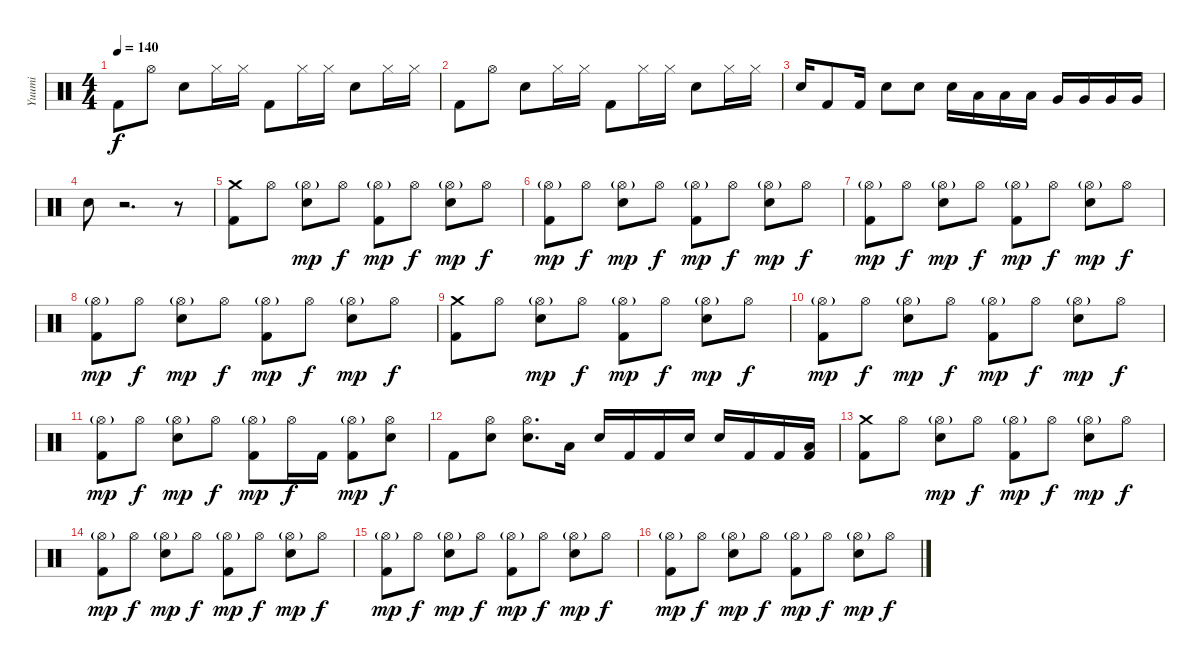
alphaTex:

\track ("Yuumi" "Yuumi") {instrument percussion}
\staff {score}
\articulation defaults
\ts (4 4)
\tempo 140
\clef neutral
\ks c "Kick (hit) 2".8{dy f} "Hi-Hat (open)".8 "Electric Snare (hit)".8 "Hi-Hat (closed)".16 "Hi-Hat (closed)".16 "Kick (hit) 2".8 "Hi-Hat (closed)".16 "Hi-Hat (closed)".16 "Electric Snare (hit)".8 "Hi-Hat (closed)".16 "Hi-Hat (closed)".16
|
"Kick (hit) 2".8 "Hi-Hat (open)".8 "Electric Snare (hit)".8 "Hi-Hat (closed)".16 "Hi-Hat (closed)".16 "Kick (hit) 2".8 "Hi-Hat (closed)".16 "Hi-Hat (closed)".16 "Electric Snare (hit)".8 "Hi-Hat (closed)".16 "Hi-Hat (closed)".16 |
"Electric Snare (hit)".16 "Kick (hit) 2".8 "Kick (hit) 2".16 "Electric Snare (hit)".8 "Electric Snare (hit)".8 "Electric Snare (hit)".16 "Low Tom (hit)".16 "Low Tom (hit)".16 "Low Tom (hit)".16 "Very Low Tom (hit)".16 "Very Low Tom (hit)".16 "Very Low Tom (hit)".16 "Very Low Tom (hit)".16 |
"Electric Snare (hit)".8 r.2{d} r.8 |
("Crash medium (hit)" "Kick (hit) 2").8 "Hi-Hat (open)".8 ("Hi-Hat (open)"{g} "Electric Snare (hit)").8{dy mp} "Hi-Hat (open)".8{dy f} ("Hi-Hat (open)"{g} "Kick (hit) 2").8{dy mp} "Hi-Hat (open)".8{dy f} ("Hi-Hat (open)"{g} "Electric Snare (hit)").8{dy mp} "Hi-Hat (open)".8{dy f} |
("Hi-Hat (open)"{g} "Kick (hit) 2").8{dy mp} "Hi-Hat (open)".8{dy f} ("Hi-Hat (open)"{g} "Electric Snare (hit)").8{dy mp} "Hi-Hat (open)".8{dy f} ("Hi-Hat (open)"{g} "Kick (hit) 2").8{dy mp} "Hi-Hat (open)".8{dy f} ("Hi-Hat (open)"{g} "Electric Snare (hit)").8{dy mp} "Hi-Hat (open)".8{dy f} |
("Hi-Hat (open)"{g} "Kick (hit) 2").8{dy mp} "Hi-Hat (open)".8{dy f} ("Hi-Hat (open)"{g} "Electric Snare (hit)").8{dy mp} "Hi-Hat (open)".8{dy f} ("Hi-Hat (open)"{g} "Kick (hit) 2").8{dy mp} "Hi-Hat (open)".8{dy f} ("Hi-Hat (open)"{g} "Electric Snare (hit)").8{dy mp} "Hi-Hat (open)".8{dy f} |
("Hi-Hat (open)"{g} "Kick (hit) 2").8{dy mp} "Hi-Hat (open)".8{dy f} ("Hi-Hat (open)"{g} "Electric Snare (hit)").8{dy mp} "Hi-Hat (open)".8{dy f} ("Hi-Hat (open)"{g} "Kick (hit) 2").8{dy mp} "Hi-Hat (open)".8{dy f} ("Hi-Hat (open)"{g} "Electric Snare (hit)").8{dy mp} "Hi-Hat (open)".8{dy f} |
("Crash medium (hit)" "Kick (hit) 2").8 "Hi-Hat (open)".8 ("Hi-Hat (open)"{g} "Electric Snare (hit)").8{dy mp} "Hi-Hat (open)".8{dy f} ("Hi-Hat (open)"{g} "Kick (hit) 2").8{dy mp} "Hi-Hat (open)".8{dy f} ("Hi-Hat (open)"{g} "Electric Snare (hit)").8{dy mp} "Hi-Hat (open)".8{dy f} |
("Hi-Hat (open)"{g} "Kick (hit) 2").8{dy mp} "Hi-Hat (open)".8{dy f} ("Hi-Hat (open)"{g} "Electric Snare (hit)").8{dy mp} "Hi-Hat (open)".8{dy f} ("Hi-Hat (open)"{g} "Kick (hit) 2").8{dy mp} "Hi-Hat (open)".8{dy f} ("Hi-Hat (open)"{g} "Electric Snare (hit)").8{dy mp} "Hi-Hat (open)".8{dy f} |
("Hi-Hat (open)"{g} "Kick (hit) 2").8{dy mp} "Hi-Hat (open)".8{dy f} ("Hi-Hat (open)"{g} "Electric Snare (hit)").8{dy mp} "Hi-Hat (open)".8{dy f} ("Hi-Hat (open)"{g} "Kick (hit) 2").8{dy mp} "Hi-Hat (open)".16{dy f} "Kick (hit) 2".16 ("Hi-Hat (open)"{g} "Kick (hit) 2").8{dy mp} ("Hi-Hat (open)" "Electric Snare (hit)").8{dy f} |
"Kick (hit) 2".8 ("Hi-Hat (open)" "Electric Snare (hit)").8 ("Hi-Hat (open)" "Electric Snare (hit)").8{d} "Low Tom (hit)".16 "Electric Snare (hit)".16 "Kick (hit) 2".16 "Kick (hit) 2".16 "Electric Snare (hit)".16 "Electric Snare (hit)".16 "Kick (hit) 2".16 "Kick (hit) 2".16 ("Low Tom (hit)" "Kick (hit) 2").16 |
("Crash medium (hit)" "Kick (hit) 2").8 "Hi-Hat (open)".8 ("Hi-Hat (open)"{g} "Electric Snare (hit)").8{dy mp} "Hi-Hat (open)".8{dy f} ("Hi-Hat (open)"{g} "Kick (hit) 2").8{dy mp} "Hi-Hat (open)".8{dy f} ("Hi-Hat (open)"{g} "Electric Snare (hit)").8{dy mp} "Hi-Hat (open)".8{dy f} |
("Hi-Hat (open)"{g} "Kick (hit) 2").8{dy mp} "Hi-Hat (open)".8{dy f} ("Hi-Hat (open)"{g} "Electric Snare (hit)").8{dy mp} "Hi-Hat (open)".8{dy f} ("Hi-Hat (open)"{g} "Kick (hit) 2").8{dy mp} "Hi-Hat (open)".8{dy f} ("Hi-Hat (open)"{g} "Electric Snare (hit)").8{dy mp} "Hi-Hat (open)".8{dy f} |
("Hi-Hat (open)"{g} "Kick (hit) 2").8{dy mp} "Hi-Hat (open)".8{dy f} ("Hi-Hat (open)"{g} "Electric Snare (hit)").8{dy mp} "Hi-Hat (open)".8{dy f} ("Hi-Hat (open)"{g} "Kick (hit) 2").8{dy mp} "Hi-Hat (open)".8{dy f} ("Hi-Hat (open)"{g} "Electric Snare (hit)").8{dy mp} "Hi-Hat (open)".8{dy f} |
("Hi-Hat (open)"{g} "Kick (hit) 2").8{dy mp} "Hi-Hat (open)".8{dy f} ("Hi-Hat (open)"{g} "Electric Snare (hit)").8{dy mp} "Hi-Hat (open)".8{dy f} ("Hi-Hat (open)"{g} "Kick (hit) 2").8{dy mp} "Hi-Hat (open)".8{dy f} ("Hi-Hat (open)"{g} "Electric Snare (hit)").8{dy mp} "Hi-Hat (open)".8{dy f}
